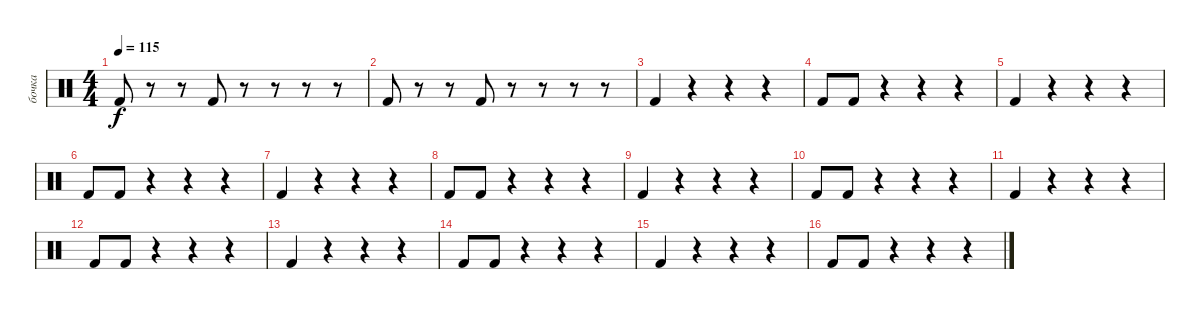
\track ("бочка" "бочка") {mute instrument percussion}
\staff {score}
\articulation defaults
\ts (4 4)
\tempo 115
\clef neutral
\ks c "Kick (hit) 2".8{dy f}
r.8 r.8 "Kick (hit) 2".8 r.8 r.8 r.8 r.8 |
"Kick (hit) 2".8 r.8 r.8 "Kick (hit) 2".8 r.8 r.8 r.8 r.8 |
"Kick (hit) 2".4 r.4 r.4 r.4 |
"Kick (hit) 2".8 "Kick (hit) 2".8 r.4 r.4 r.4 |
"Kick (hit) 2".4 r.4 r.4 r.4 |
"Kick (hit) 2".8 "Kick (hit) 2".8 r.4 r.4 r.4 |
"Kick (hit) 2".4 r.4 r.4 r.4 |
"Kick (hit) 2".8 "Kick (hit) 2".8 r.4 r.4 r.4 |
"Kick (hit) 2".4 r.4 r.4 r.4 |
"Kick (hit) 2".8 "Kick (hit) 2".8 r.4 r.4 r.4 |
"Kick (hit) 2".4 r.4 r.4 r.4 |
"Kick (hit) 2".8 "Kick (hit) 2".8 r.4 r.4 r.4 |
"Kick (hit) 2".4 r.4 r.4 r.4 |
"Kick (hit) 2".8 "Kick (hit) 2".8 r.4 r.4 r.4 |
"Kick (hit) 2".4 r.4 r.4 r.4 |
"Kick (hit) 2".8 "Kick (hit) 2".8 r.4 r.4 r.4
